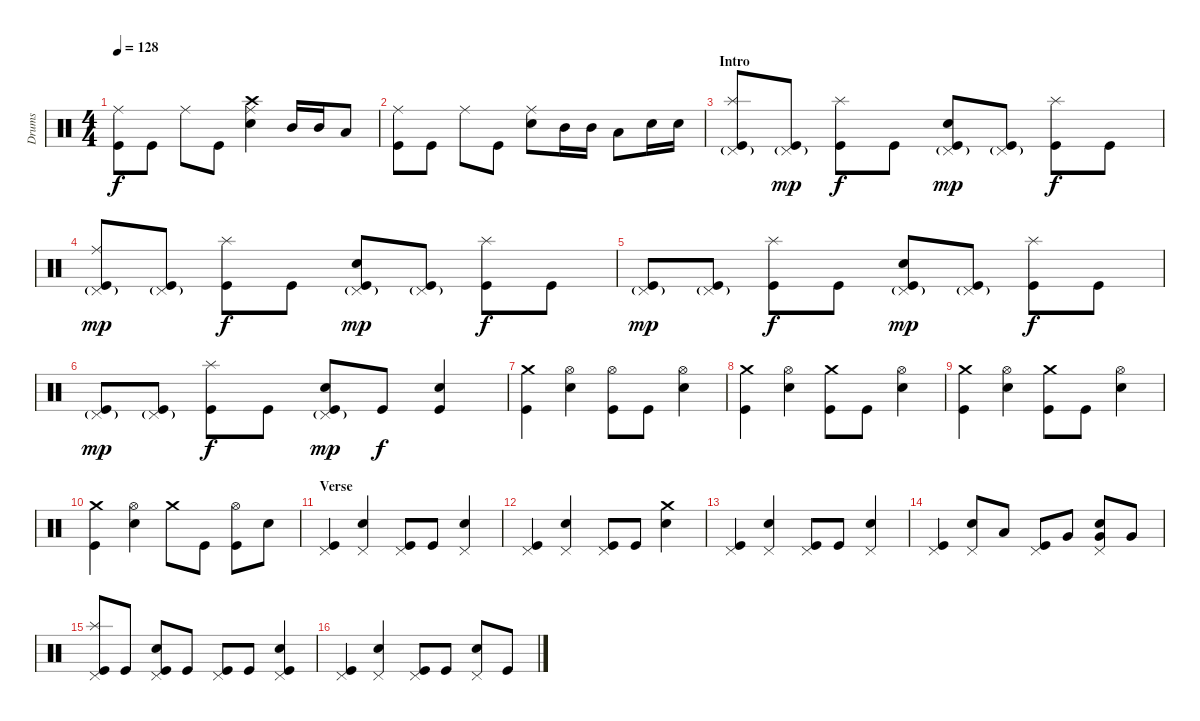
\track ("Drums" "Drums") {instrument percussion}
\staff {score}
\articulation defaults
\ts (4 4)
\tempo 128
\clef neutral
\ks c
("Ride (middle)" "Kick (hit)").8{dy f} "Kick (hit)".8 "Ride (middle)".8 "Kick (hit)".8 ("Crash high (hit)" "Ride (middle)" "Electric Snare (hit)").4 "Mid Tom (hit)".16 "Mid Tom (hit)".16 "Low Tom (hit)".8 |
("Ride (middle)" "Kick (hit)").8 "Kick (hit)".8 "Ride (middle)".8 "Kick (hit)".8 ("Ride (middle)" "Electric Snare (hit)").8 "Mid Tom (hit)".16 "Mid Tom (hit)".16 "Low Tom (hit)".8 "Electric Snare (hit)".16 "Electric Snare (hit)".16 |
\section ("" "Intro")
("Splash (hit)" "Pedal Hi-Hat (hit)"{g} "Kick (hit)").8 ("Pedal Hi-Hat (hit)"{g} "Kick (hit)").8{dy mp} ("Splash (hit)" "Kick (hit)").8{dy f} "Kick (hit)".8 ("Pedal Hi-Hat (hit)"{g} "Electric Snare (hit)" "Kick (hit)").8{dy mp} ("Pedal Hi-Hat (hit)"{g} "Kick (hit)").8 ("Splash (hit)" "Kick (hit)").8{dy f} "Kick (hit)".8 |
("Ride (middle)" "Pedal Hi-Hat (hit)"{g} "Kick (hit)").8{dy mp} ("Pedal Hi-Hat (hit)"{g} "Kick (hit)").8 ("Splash (hit)" "Kick (hit)").8{dy f} "Kick (hit)".8 ("Pedal Hi-Hat (hit)"{g} "Electric Snare (hit)" "Kick (hit)").8{dy mp} ("Pedal Hi-Hat (hit)"{g} "Kick (hit)").8 ("Splash (hit)" "Kick (hit)").8{dy f} "Kick (hit)".8 |
("Pedal Hi-Hat (hit)"{g} "Kick (hit)").8{dy mp} ("Pedal Hi-Hat (hit)"{g} "Kick (hit)").8 ("Splash (hit)" "Kick (hit)").8{dy f} "Kick (hit)".8 ("Pedal Hi-Hat (hit)"{g} "Electric Snare (hit)" "Kick (hit)").8{dy mp} ("Pedal Hi-Hat (hit)"{g} "Kick (hit)").8 ("Splash (hit)" "Kick (hit)").8{dy f} "Kick (hit)".8 |
("Pedal Hi-Hat (hit)"{g} "Kick (hit)").8{dy mp} ("Pedal Hi-Hat (hit)"{g} "Kick (hit)").8 ("Splash (hit)" "Kick (hit)").8{dy f} "Kick (hit)".8 ("Pedal Hi-Hat (hit)"{g} "Electric Snare (hit)" "Kick (hit)").8{dy mp} "Kick (hit)".8{dy f} ("Electric Snare (hit)" "Kick (hit)").4 |
("Crash medium (hit)" "Kick (hit)").4 ("Hi-Hat (open)" "Electric Snare (hit)").4 ("Hi-Hat (open)" "Kick (hit)").8 "Kick (hit)".8 ("Hi-Hat (open)" "Electric Snare (hit)").4 |
("Crash medium (hit)" "Kick (hit)").4 ("Hi-Hat (open)" "Electric Snare (hit)").4 ("Crash medium (hit)" "Kick (hit)").8 "Kick (hit)".8 ("Hi-Hat (open)" "Electric Snare (hit)").4 |
("Crash medium (hit)" "Kick (hit)").4 ("Hi-Hat (open)" "Electric Snare (hit)").4 ("Crash medium (hit)" "Kick (hit)").8 "Kick (hit)".8 ("Hi-Hat (open)" "Electric Snare (hit)").4 |
("Crash medium (hit)" "Kick (hit)").4 ("Hi-Hat (open)" "Electric Snare (hit)").4 "Crash medium (hit)".8 "Kick (hit)".8 ("Hi-Hat (open)" "Kick (hit)").8 "Electric Snare (hit)".8 |
\section ("" "Verse")
("Pedal Hi-Hat (hit)" "Kick (hit)").4 ("Pedal Hi-Hat (hit)" "Electric Snare (hit)").4 ("Pedal Hi-Hat (hit)" "Kick (hit)").8 "Kick (hit)".8 ("Pedal Hi-Hat (hit)" "Electric Snare (hit)").4 |
("Pedal Hi-Hat (hit)" "Kick (hit)").4 ("Pedal Hi-Hat (hit)" "Electric Snare (hit)").4 ("Pedal Hi-Hat (hit)" "Kick (hit)").8 "Kick (hit)".8 ("Crash medium (hit)" "Electric Snare (hit)").4 |
("Pedal Hi-Hat (hit)" "Kick (hit)").4 ("Pedal Hi-Hat (hit)" "Electric Snare (hit)").4 ("Pedal Hi-Hat (hit)" "Kick (hit)").8 "Kick (hit)".8 ("Pedal Hi-Hat (hit)" "Electric Snare (hit)").4 |
("Pedal Hi-Hat (hit)" "Kick (hit)").4 ("Pedal Hi-Hat (hit)" "Electric Snare (hit)").8 "Low Tom (hit)".8 ("Pedal Hi-Hat (hit)" "Kick (hit)").8 "Very Low Tom (hit)".8 ("Pedal Hi-Hat (hit)" "Very Low Tom (hit)" "Electric Snare (hit)").8 "Very Low Tom (hit)".8 |
("Splash (hit)" "Pedal Hi-Hat (hit)" "Kick (hit)").8 "Kick (hit)".8 ("Pedal Hi-Hat (hit)" "Electric Snare (hit)" "Kick (hit)").8 "Kick (hit)".8 ("Pedal Hi-Hat (hit)" "Kick (hit)").8 "Kick (hit)".8 ("Pedal Hi-Hat (hit)" "Electric Snare (hit)" "Kick (hit)").4 |
("Pedal Hi-Hat (hit)" "Kick (hit)").4 ("Pedal Hi-Hat (hit)" "Electric Snare (hit)").4 ("Pedal Hi-Hat (hit)" "Kick (hit)").8 "Kick (hit)".8 ("Pedal Hi-Hat (hit)" "Electric Snare (hit)").8 "Kick (hit)".8
